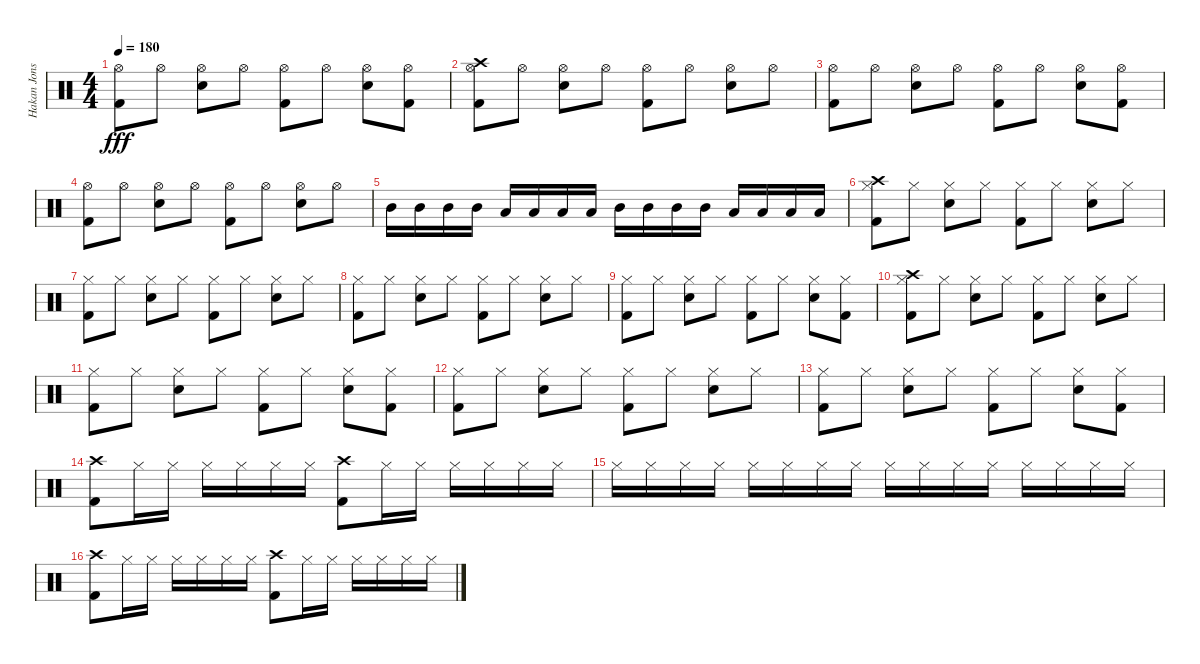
\track ("Hakan Jonsson" "Hakan Jons") {instrument percussion}
\staff {score}
\articulation defaults
\ts (4 4)
\tempo 180
\clef neutral
\ks c
("Hi-Hat (open)" "Kick (hit) 2").8{dy fff} "Hi-Hat (open)".8 ("Hi-Hat (open)" "Electric Snare (hit)").8 "Hi-Hat (open)".8 ("Hi-Hat (open)" "Kick (hit) 2").8 "Hi-Hat (open)".8 ("Hi-Hat (open)" "Electric Snare (hit)").8 ("Hi-Hat (open)" "Kick (hit) 2").8 |
("Crash high (hit)" "Hi-Hat (open)" "Kick (hit) 2").8 "Hi-Hat (open)".8 ("Hi-Hat (open)" "Electric Snare (hit)").8 "Hi-Hat (open)".8 ("Hi-Hat (open)" "Kick (hit) 2").8 "Hi-Hat (open)".8 ("Hi-Hat (open)" "Electric Snare (hit)").8 "Hi-Hat (open)".8 |
("Hi-Hat (open)" "Kick (hit) 2").8 "Hi-Hat (open)".8 ("Hi-Hat (open)" "Electric Snare (hit)").8 "Hi-Hat (open)".8 ("Hi-Hat (open)" "Kick (hit) 2").8 "Hi-Hat (open)".8 ("Hi-Hat (open)" "Electric Snare (hit)").8 ("Hi-Hat (open)" "Kick (hit) 2").8 |
("Hi-Hat (open)" "Kick (hit) 2").8 "Hi-Hat (open)".8 ("Hi-Hat (open)" "Electric Snare (hit)").8 "Hi-Hat (open)".8 ("Hi-Hat (open)" "Kick (hit) 2").8 "Hi-Hat (open)".8 ("Hi-Hat (open)" "Electric Snare (hit)").8 "Hi-Hat (open)".8 |
"Mid Tom (hit)".16 "Mid Tom (hit)".16 "Mid Tom (hit)".16 "Mid Tom (hit)".16 "Low Tom (hit)".16 "Low Tom (hit)".16 "Low Tom (hit)".16 "Low Tom (hit)".16 "Mid Tom (hit)".16 "Mid Tom (hit)".16 "Mid Tom (hit)".16 "Mid Tom (hit)".16 "Low Tom (hit)".16 "Low Tom (hit)".16 "Low Tom (hit)".16 "Low Tom (hit)".16 |
("Crash high (hit)" "Hi-Hat (closed)" "Kick (hit) 2").8 "Hi-Hat (closed)".8 ("Hi-Hat (closed)" "Electric Snare (hit)").8 "Hi-Hat (closed)".8 ("Hi-Hat (closed)" "Kick (hit) 2").8 "Hi-Hat (closed)".8 ("Hi-Hat (closed)" "Electric Snare (hit)").8 "Hi-Hat (closed)".8 |
("Hi-Hat (closed)" "Kick (hit) 2").8 "Hi-Hat (closed)".8 ("Hi-Hat (closed)" "Electric Snare (hit)").8 "Hi-Hat (closed)".8 ("Hi-Hat (closed)" "Kick (hit) 2").8 "Hi-Hat (closed)".8 ("Hi-Hat (closed)" "Electric Snare (hit)").8 "Hi-Hat (closed)".8 |
("Hi-Hat (closed)" "Kick (hit) 2").8 "Hi-Hat (closed)".8 ("Hi-Hat (closed)" "Electric Snare (hit)").8 "Hi-Hat (closed)".8 ("Hi-Hat (closed)" "Kick (hit) 2").8 "Hi-Hat (closed)".8 ("Hi-Hat (closed)" "Electric Snare (hit)").8 "Hi-Hat (closed)".8 |
("Hi-Hat (closed)" "Kick (hit) 2").8 "Hi-Hat (closed)".8 ("Hi-Hat (closed)" "Electric Snare (hit)").8 "Hi-Hat (closed)".8 ("Hi-Hat (closed)" "Kick (hit) 2").8 "Hi-Hat (closed)".8 ("Hi-Hat (closed)" "Electric Snare (hit)").8 ("Hi-Hat (closed)" "Kick (hit) 2").8 |
("Crash high (hit)" "Hi-Hat (closed)" "Kick (hit) 2").8 "Hi-Hat (closed)".8 ("Hi-Hat (closed)" "Electric Snare (hit)").8 "Hi-Hat (closed)".8 ("Hi-Hat (closed)" "Kick (hit) 2").8 "Hi-Hat (closed)".8 ("Hi-Hat (closed)" "Electric Snare (hit)").8 "Hi-Hat (closed)".8 |
("Hi-Hat (closed)" "Kick (hit) 2").8 "Hi-Hat (closed)".8 ("Hi-Hat (closed)" "Electric Snare (hit)").8 "Hi-Hat (closed)".8 ("Hi-Hat (closed)" "Kick (hit) 2").8 "Hi-Hat (closed)".8 ("Hi-Hat (closed)" "Electric Snare (hit)").8 ("Hi-Hat (closed)" "Kick (hit) 2").8 |
("Hi-Hat (closed)" "Kick (hit) 2").8 "Hi-Hat (closed)".8 ("Hi-Hat (closed)" "Electric Snare (hit)").8 "Hi-Hat (closed)".8 ("Hi-Hat (closed)" "Kick (hit) 2").8 "Hi-Hat (closed)".8 ("Hi-Hat (closed)" "Electric Snare (hit)").8 "Hi-Hat (closed)".8 |
("Hi-Hat (closed)" "Kick (hit) 2").8 "Hi-Hat (closed)".8 ("Hi-Hat (closed)" "Electric Snare (hit)").8 "Hi-Hat (closed)".8 ("Hi-Hat (closed)" "Kick (hit) 2").8 "Hi-Hat (closed)".8 ("Hi-Hat (closed)" "Electric Snare (hit)").8 ("Hi-Hat (closed)" "Kick (hit) 2").8 |
("Crash high (hit)" "Kick (hit) 2").8 "Hi-Hat (closed)".16 "Hi-Hat (closed)".16 "Hi-Hat (closed)".16 "Hi-Hat (closed)".16 "Hi-Hat (closed)".16 "Hi-Hat (closed)".16 ("Crash high (hit)" "Kick (hit) 2").8 "Hi-Hat (closed)".16 "Hi-Hat (closed)".16 "Hi-Hat (closed)".16 "Hi-Hat (closed)".16 "Hi-Hat (closed)".16 "Hi-Hat (closed)".16 |
"Hi-Hat (closed)".16 "Hi-Hat (closed)".16 "Hi-Hat (closed)".16 "Hi-Hat (closed)".16 "Hi-Hat (closed)".16 "Hi-Hat (closed)".16 "Hi-Hat (closed)".16 "Hi-Hat (closed)".16 "Hi-Hat (closed)".16 "Hi-Hat (closed)".16 "Hi-Hat (closed)".16 "Hi-Hat (closed)".16 "Hi-Hat (closed)".16 "Hi-Hat (closed)".16 "Hi-Hat (closed)".16 "Hi-Hat (closed)".16 |
("Crash high (hit)" "Kick (hit) 2").8 "Hi-Hat (closed)".16 "Hi-Hat (closed)".16 "Hi-Hat (closed)".16 "Hi-Hat (closed)".16 "Hi-Hat (closed)".16 "Hi-Hat (closed)".16 ("Crash high (hit)" "Kick (hit) 2").8 "Hi-Hat (closed)".16 "Hi-Hat (closed)".16 "Hi-Hat (closed)".16 "Hi-Hat (closed)".16 "Hi-Hat (closed)".16 "Hi-Hat (closed)".16
